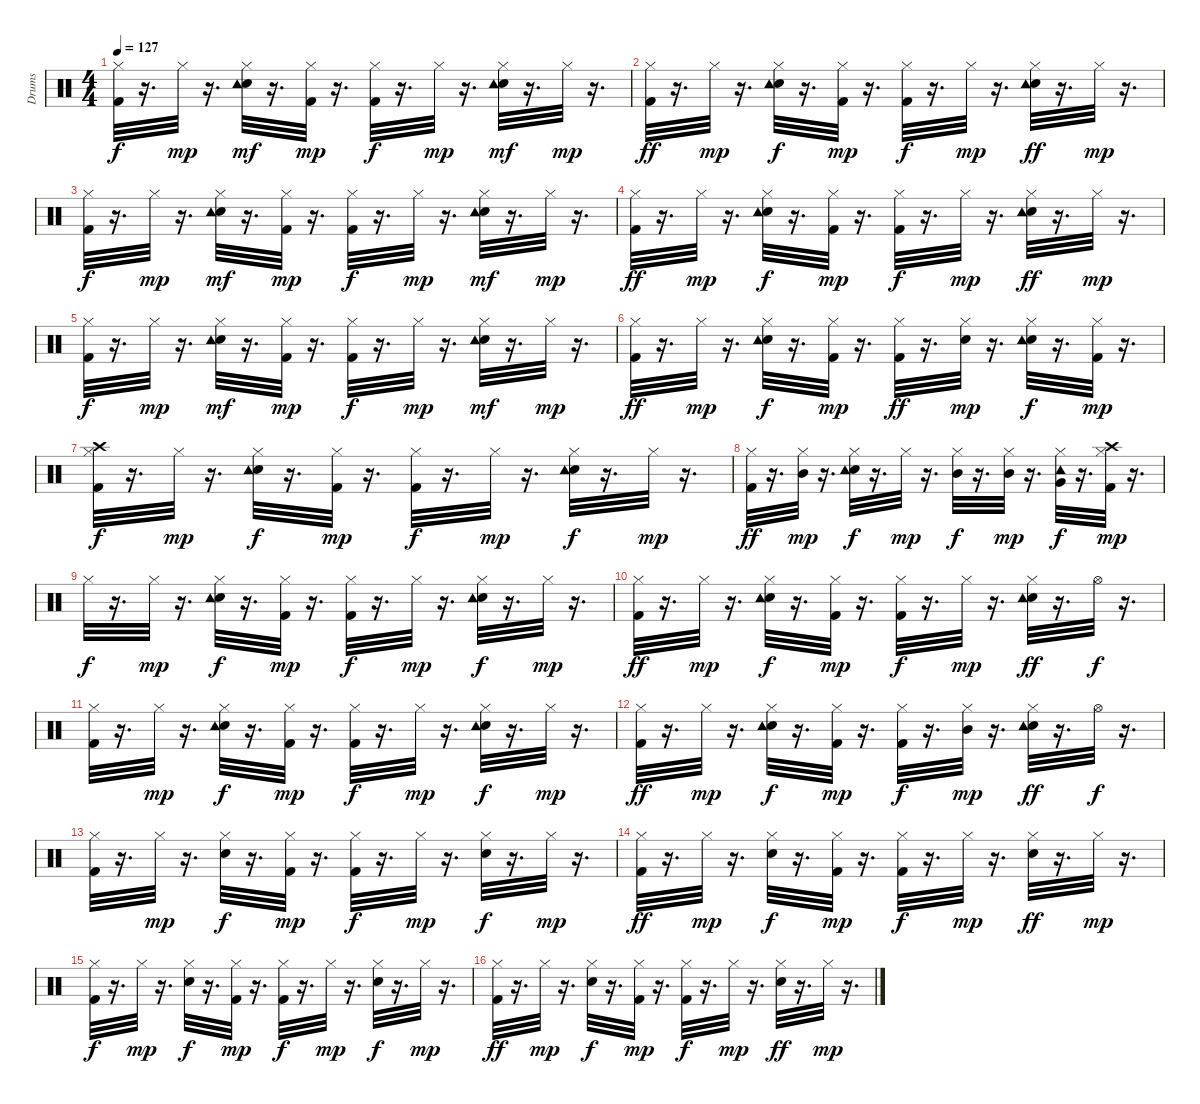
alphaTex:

\track ("Drums               " "Drums     ") {instrument percussion}
\staff {score}
\articulation defaults
\ts (4 4)
\tempo 127
\clef neutral
\ks c
("Kick (hit) 2" "Hi-Hat (closed)").32{dy f} r.16{d} "Hi-Hat (closed)".32{dy mp} r.16{d} ("Snare (hit) 2" "Tambourine (hit)" "Hi-Hat (closed)").32{dy mf} r.16{d} ("Kick (hit) 2" "Hi-Hat (closed)").32{dy mp} r.16{d} ("Kick (hit) 2" "Hi-Hat (closed)").32{dy f} r.16{d} "Hi-Hat (closed)".32{dy mp} r.16{d} ("Hi-Hat (closed)" "Snare (hit) 2" "Tambourine (hit)").32{dy mf} r.16{d} "Hi-Hat (closed)".32{dy mp} r.16{d} |
("Kick (hit) 2" "Hi-Hat (closed)").32{dy ff} r.16{d} "Hi-Hat (closed)".32{dy mp} r.16{d} ("Snare (hit) 2" "Tambourine (hit)" "Hi-Hat (closed)").32{dy f} r.16{d} ("Kick (hit) 2" "Hi-Hat (closed)").32{dy mp} r.16{d} ("Kick (hit) 2" "Hi-Hat (closed)").32{dy f} r.16{d} "Hi-Hat (closed)".32{dy mp} r.16{d} ("Snare (hit) 2" "Hi-Hat (closed)" "Tambourine (hit)").32{dy ff} r.16{d} "Hi-Hat (closed)".32{dy mp} r.16{d} |
("Kick (hit) 2" "Hi-Hat (closed)").32{dy f} r.16{d} "Hi-Hat (closed)".32{dy mp} r.16{d} ("Snare (hit) 2" "Tambourine (hit)" "Hi-Hat (closed)").32{dy mf} r.16{d} ("Kick (hit) 2" "Hi-Hat (closed)").32{dy mp} r.16{d} ("Kick (hit) 2" "Hi-Hat (closed)").32{dy f} r.16{d} "Hi-Hat (closed)".32{dy mp} r.16{d} ("Snare (hit) 2" "Tambourine (hit)" "Hi-Hat (closed)").32{dy mf} r.16{d} "Hi-Hat (closed)".32{dy mp} r.16{d} |
("Kick (hit) 2" "Hi-Hat (closed)").32{dy ff} r.16{d} "Hi-Hat (closed)".32{dy mp} r.16{d} ("Snare (hit) 2" "Tambourine (hit)" "Hi-Hat (closed)").32{dy f} r.16{d} ("Kick (hit) 2" "Hi-Hat (closed)").32{dy mp} r.16{d} ("Hi-Hat (closed)" "Kick (hit) 2").32{dy f} r.16{d} "Hi-Hat (closed)".32{dy mp} r.16{d} ("Snare (hit) 2" "Tambourine (hit)" "Hi-Hat (closed)").32{dy ff} r.16{d} "Hi-Hat (closed)".32{dy mp} r.16{d} |
("Kick (hit) 2" "Hi-Hat (closed)").32{dy f} r.16{d} "Hi-Hat (closed)".32{dy mp} r.16{d} ("Snare (hit) 2" "Tambourine (hit)" "Hi-Hat (closed)").32{dy mf} r.16{d} ("Kick (hit) 2" "Hi-Hat (closed)").32{dy mp} r.16{d} ("Kick (hit) 2" "Hi-Hat (closed)").32{dy f} r.16{d} "Hi-Hat (closed)".32{dy mp} r.16{d} ("Snare (hit) 2" "Hi-Hat (closed)" "Tambourine (hit)").32{dy mf} r.16{d} "Hi-Hat (closed)".32{dy mp} r.16{d} |
("Kick (hit) 2" "Hi-Hat (closed)").32{dy ff} r.16{d} "Hi-Hat (closed)".32{dy mp} r.16{d} ("Snare (hit) 2" "Hi-Hat (closed)" "Tambourine (hit)").32{dy f} r.16{d} ("Kick (hit) 2" "Hi-Hat (closed)").32{dy mp} r.16{d} ("Kick (hit) 2" "Hi-Hat (closed)").32{dy ff} r.16{d} ("Snare (hit) 2" "Hi-Hat (closed)").32{dy mp} r.16{d} ("Snare (hit) 2" "Tambourine (hit)" "Hi-Hat (closed)").32{dy f} r.16{d} ("Kick (hit) 2" "Hi-Hat (closed)").32{dy mp} r.16{d} |
("Kick (hit) 2" "Crash high (hit)" "Hi-Hat (closed)").32{dy f} r.16{d} "Hi-Hat (closed)".32{dy mp} r.16{d} ("Hi-Hat (closed)" "Snare (hit) 2" "Tambourine (hit)").32{dy f} r.16{d} ("Kick (hit) 2" "Hi-Hat (closed)").32{dy mp} r.16{d} ("Kick (hit) 2" "Hi-Hat (closed)").32{dy f} r.16{d} "Hi-Hat (closed)".32{dy mp} r.16{d} ("Snare (hit) 2" "Tambourine (hit)" "Hi-Hat (closed)").32{dy f} r.16{d} "Hi-Hat (closed)".32{dy mp} r.16{d} |
("Kick (hit) 2" "Hi-Hat (closed)").32{dy ff} r.16{d} ("Mid Tom (hit)" "Hi-Hat (closed)").32{dy mp} r.16{d} ("Snare (hit) 2" "Hi-Hat (closed)" "Tambourine (hit)").32{dy f} r.16{d} "Hi-Hat (closed)".32{dy mp} r.16{d} ("Hi-Hat (closed)" "Mid Tom (hit)").32{dy f} r.16{d} ("Hi-Hat (closed)" "Mid Tom (hit)").32{dy mp} r.16{d} ("Very Low Tom (hit)" "Tambourine (hit)" "Hi-Hat (closed)").32{dy f} r.16{d} ("Kick (hit) 2" "Crash high (hit)" "Hi-Hat (closed)").32{dy mp} r.16{d} |
"Hi-Hat (closed)".32{dy f} r.16{d} "Hi-Hat (closed)".32{dy mp} r.16{d} ("Snare (hit) 2" "Tambourine (hit)" "Hi-Hat (closed)").32{dy f} r.16{d} ("Kick (hit) 2" "Hi-Hat (closed)").32{dy mp} r.16{d} ("Kick (hit) 2" "Hi-Hat (closed)").32{dy f} r.16{d} "Hi-Hat (closed)".32{dy mp} r.16{d} ("Snare (hit) 2" "Tambourine (hit)" "Hi-Hat (closed)").32{dy f} r.16{d} "Hi-Hat (closed)".32{dy mp} r.16{d} |
("Hi-Hat (closed)" "Kick (hit) 2").32{dy ff} r.16{d} "Hi-Hat (closed)".32{dy mp} r.16{d} ("Snare (hit) 2" "Tambourine (hit)" "Hi-Hat (closed)").32{dy f} r.16{d} ("Kick (hit) 2" "Hi-Hat (closed)").32{dy mp} r.16{d} ("Kick (hit) 2" "Hi-Hat (closed)").32{dy f} r.16{d} "Hi-Hat (closed)".32{dy mp} r.16{d} ("Snare (hit) 2" "Tambourine (hit)" "Hi-Hat (closed)").32{dy ff} r.16{d} "Hi-Hat (open)".32{dy f} r.16{d} |
("Kick (hit) 2" "Hi-Hat (closed)").32 r.16{d} "Hi-Hat (closed)".32{dy mp} r.16{d} ("Snare (hit) 2" "Hi-Hat (closed)" "Tambourine (hit)").32{dy f} r.16{d} ("Hi-Hat (closed)" "Kick (hit) 2").32{dy mp} r.16{d} ("Kick (hit) 2" "Hi-Hat (closed)").32{dy f} r.16{d} "Hi-Hat (closed)".32{dy mp} r.16{d} ("Snare (hit) 2" "Hi-Hat (closed)" "Tambourine (hit)").32{dy f} r.16{d} "Hi-Hat (closed)".32{dy mp} r.16{d} |
("Kick (hit) 2" "Hi-Hat (closed)").32{dy ff} r.16{d} "Hi-Hat (closed)".32{dy mp} r.16{d} ("Snare (hit) 2" "Tambourine (hit)" "Hi-Hat (closed)").32{dy f} r.16{d} ("Kick (hit) 2" "Hi-Hat (closed)").32{dy mp} r.16{d} ("Kick (hit) 2" "Hi-Hat (closed)").32{dy f} r.16{d} ("Hi-Hat (closed)" "Mid Tom (hit)").32{dy mp} r.16{d} ("Hi-Hat (closed)" "Snare (hit) 2" "Tambourine (hit)").32{dy ff} r.16{d} "Hi-Hat (open)".32{dy f} r.16{d} |
("Kick (hit) 2" "Hi-Hat (closed)").32 r.16{d} "Hi-Hat (closed)".32{dy mp} r.16{d} ("Snare (hit) 2" "Hi-Hat (closed)").32{dy f} r.16{d} ("Kick (hit) 2" "Hi-Hat (closed)").32{dy mp} r.16{d} ("Kick (hit) 2" "Hi-Hat (closed)").32{dy f} r.16{d} "Hi-Hat (closed)".32{dy mp} r.16{d} ("Snare (hit) 2" "Hi-Hat (closed)").32{dy f} r.16{d} "Hi-Hat (closed)".32{dy mp} r.16{d} |
("Kick (hit) 2" "Hi-Hat (closed)").32{dy ff} r.16{d} "Hi-Hat (closed)".32{dy mp} r.16{d} ("Snare (hit) 2" "Hi-Hat (closed)").32{dy f} r.16{d} ("Kick (hit) 2" "Hi-Hat (closed)").32{dy mp} r.16{d} ("Kick (hit) 2" "Hi-Hat (closed)").32{dy f} r.16{d} "Hi-Hat (closed)".32{dy mp} r.16{d} ("Snare (hit) 2" "Hi-Hat (closed)").32{dy ff} r.16{d} "Hi-Hat (closed)".32{dy mp} r.16{d} |
("Kick (hit) 2" "Hi-Hat (closed)").32{dy f} r.16{d} "Hi-Hat (closed)".32{dy mp} r.16{d} ("Snare (hit) 2" "Hi-Hat (closed)").32{dy f} r.16{d} ("Kick (hit) 2" "Hi-Hat (closed)").32{dy mp} r.16{d} ("Hi-Hat (closed)" "Kick (hit) 2").32{dy f} r.16{d} "Hi-Hat (closed)".32{dy mp} r.16{d} ("Snare (hit) 2" "Hi-Hat (closed)").32{dy f} r.16{d} "Hi-Hat (closed)".32{dy mp} r.16{d} |
("Kick (hit) 2" "Hi-Hat (closed)").32{dy ff} r.16{d} "Hi-Hat (closed)".32{dy mp} r.16{d} ("Snare (hit) 2" "Hi-Hat (closed)").32{dy f} r.16{d} ("Kick (hit) 2" "Hi-Hat (closed)").32{dy mp} r.16{d} ("Kick (hit) 2" "Hi-Hat (closed)").32{dy f} r.16{d} "Hi-Hat (closed)".32{dy mp} r.16{d} ("Snare (hit) 2" "Hi-Hat (closed)").32{dy ff} r.16{d} "Hi-Hat (closed)".32{dy mp} r.16{d}
